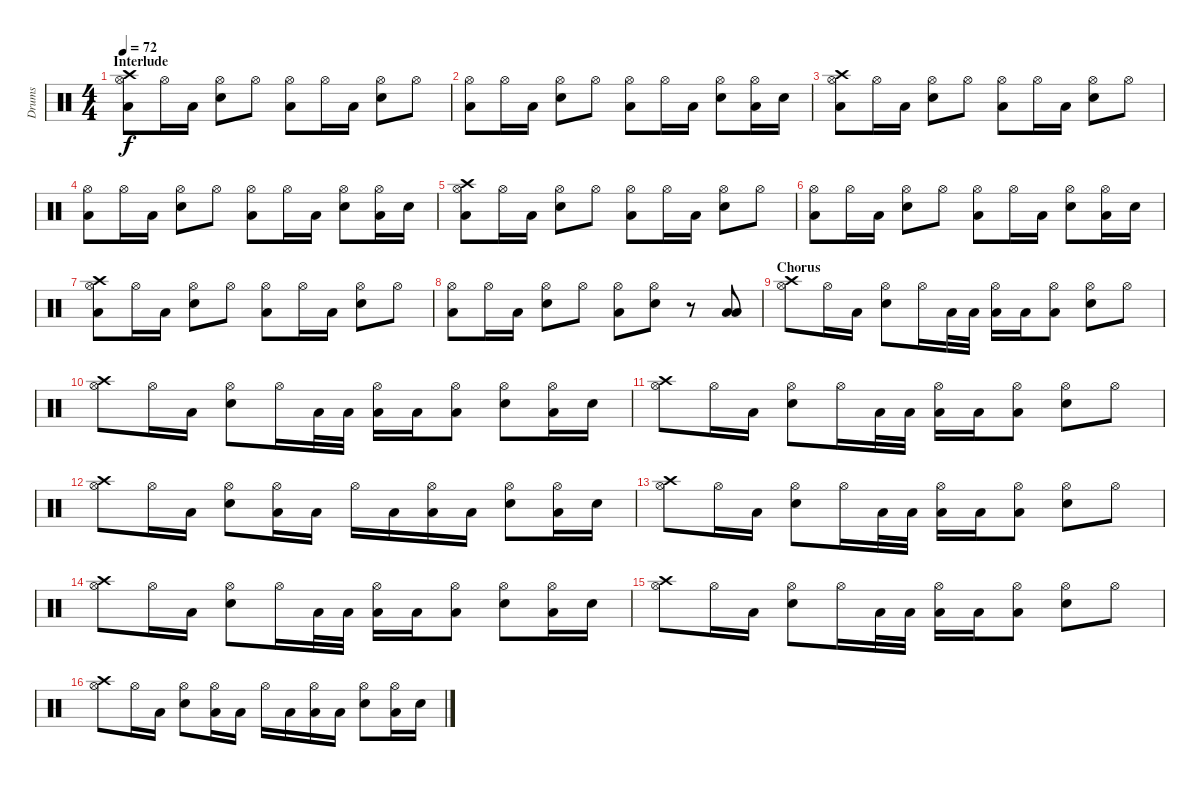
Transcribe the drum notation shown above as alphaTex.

\track ("Drums" "Drums") {instrument percussion}
\staff {score}
\articulation defaults
\ts (4 4)
\section ("" "Interlude")
\tempo 72
\clef neutral
\ks c
("Crash high (hit)" "Hi-Hat (open)" "Low Tom (hit)").8{dy f} "Hi-Hat (open)".16 "Low Tom (hit)".16 ("Hi-Hat (open)" "Electric Snare (hit)").8 "Hi-Hat (open)".8 ("Hi-Hat (open)" "Low Tom (hit)").8 "Hi-Hat (open)".16 "Low Tom (hit)".16 ("Hi-Hat (open)" "Electric Snare (hit)").8 "Hi-Hat (open)".8 |
("Hi-Hat (open)" "Low Tom (hit)").8 "Hi-Hat (open)".16 "Low Tom (hit)".16 ("Hi-Hat (open)" "Electric Snare (hit)").8 "Hi-Hat (open)".8 ("Hi-Hat (open)" "Low Tom (hit)").8 "Hi-Hat (open)".16 "Low Tom (hit)".16 ("Hi-Hat (open)" "Electric Snare (hit)").8 ("Hi-Hat (open)" "Low Tom (hit)").16 "Electric Snare (hit)".16 |
("Crash high (hit)" "Hi-Hat (open)" "Low Tom (hit)").8 "Hi-Hat (open)".16 "Low Tom (hit)".16 ("Hi-Hat (open)" "Electric Snare (hit)").8 "Hi-Hat (open)".8 ("Hi-Hat (open)" "Low Tom (hit)").8 "Hi-Hat (open)".16 "Low Tom (hit)".16 ("Hi-Hat (open)" "Electric Snare (hit)").8 "Hi-Hat (open)".8 |
("Hi-Hat (open)" "Low Tom (hit)").8 "Hi-Hat (open)".16 "Low Tom (hit)".16 ("Hi-Hat (open)" "Electric Snare (hit)").8 "Hi-Hat (open)".8 ("Hi-Hat (open)" "Low Tom (hit)").8 "Hi-Hat (open)".16 "Low Tom (hit)".16 ("Hi-Hat (open)" "Electric Snare (hit)").8 ("Hi-Hat (open)" "Low Tom (hit)").16 "Electric Snare (hit)".16 |
("Crash high (hit)" "Hi-Hat (open)" "Low Tom (hit)").8 "Hi-Hat (open)".16 "Low Tom (hit)".16 ("Hi-Hat (open)" "Electric Snare (hit)").8 "Hi-Hat (open)".8 ("Hi-Hat (open)" "Low Tom (hit)").8 "Hi-Hat (open)".16 "Low Tom (hit)".16 ("Hi-Hat (open)" "Electric Snare (hit)").8 "Hi-Hat (open)".8 |
("Hi-Hat (open)" "Low Tom (hit)").8 "Hi-Hat (open)".16 "Low Tom (hit)".16 ("Hi-Hat (open)" "Electric Snare (hit)").8 "Hi-Hat (open)".8 ("Hi-Hat (open)" "Low Tom (hit)").8 "Hi-Hat (open)".16 "Low Tom (hit)".16 ("Hi-Hat (open)" "Electric Snare (hit)").8 ("Hi-Hat (open)" "Low Tom (hit)").16 "Electric Snare (hit)".16 |
("Crash high (hit)" "Hi-Hat (open)" "Low Tom (hit)").8 "Hi-Hat (open)".16 "Low Tom (hit)".16 ("Hi-Hat (open)" "Electric Snare (hit)").8 "Hi-Hat (open)".8 ("Hi-Hat (open)" "Low Tom (hit)").8 "Hi-Hat (open)".16 "Low Tom (hit)".16 ("Hi-Hat (open)" "Electric Snare (hit)").8 "Hi-Hat (open)".8 |
("Hi-Hat (open)" "Low Tom (hit)").8 "Hi-Hat (open)".16 "Low Tom (hit)".16 ("Hi-Hat (open)" "Electric Snare (hit)").8 "Hi-Hat (open)".8 ("Hi-Hat (open)" "Low Tom (hit)").8 ("Hi-Hat (open)" "Electric Snare (hit)").8 r.8 ("Low Floor Tom (hit)" "Low Tom (hit)").8 |
\section ("" "Chorus")
("Crash high (hit)" "Hi-Hat (open)").8 "Hi-Hat (open)".16 "Low Tom (hit)".16 ("Hi-Hat (open)" "Electric Snare (hit)").8 "Hi-Hat (open)".16 "Low Tom (hit)".32 "Low Tom (hit)".32 ("Hi-Hat (open)" "Low Tom (hit)").16 "Low Tom (hit)".16 ("Hi-Hat (open)" "Low Tom (hit)").8 ("Hi-Hat (open)" "Electric Snare (hit)").8 "Hi-Hat (open)".8 |
("Crash high (hit)" "Hi-Hat (open)").8 "Hi-Hat (open)".16 "Low Tom (hit)".16 ("Hi-Hat (open)" "Electric Snare (hit)").8 "Hi-Hat (open)".16 "Low Tom (hit)".32 "Low Tom (hit)".32 ("Hi-Hat (open)" "Low Tom (hit)").16 "Low Tom (hit)".16 ("Hi-Hat (open)" "Low Tom (hit)").8 ("Hi-Hat (open)" "Electric Snare (hit)").8 ("Hi-Hat (open)" "Low Tom (hit)").16 "Electric Snare (hit)".16 |
("Crash high (hit)" "Hi-Hat (open)").8 "Hi-Hat (open)".16 "Low Tom (hit)".16 ("Hi-Hat (open)" "Electric Snare (hit)").8 "Hi-Hat (open)".16 "Low Tom (hit)".32 "Low Tom (hit)".32 ("Hi-Hat (open)" "Low Tom (hit)").16 "Low Tom (hit)".16 ("Hi-Hat (open)" "Low Tom (hit)").8 ("Hi-Hat (open)" "Electric Snare (hit)").8 "Hi-Hat (open)".8 |
("Crash high (hit)" "Hi-Hat (open)").8 "Hi-Hat (open)".16 "Low Tom (hit)".16 ("Hi-Hat (open)" "Electric Snare (hit)").8 ("Hi-Hat (open)" "Low Tom (hit)").16 "Low Tom (hit)".16 "Hi-Hat (open)".16 "Low Tom (hit)".16 ("Hi-Hat (open)" "Low Tom (hit)").16 "Low Tom (hit)".16 ("Hi-Hat (open)" "Electric Snare (hit)").8 ("Hi-Hat (open)" "Low Tom (hit)").16 "Electric Snare (hit)".16 |
("Crash high (hit)" "Hi-Hat (open)").8 "Hi-Hat (open)".16 "Low Tom (hit)".16 ("Hi-Hat (open)" "Electric Snare (hit)").8 "Hi-Hat (open)".16 "Low Tom (hit)".32 "Low Tom (hit)".32 ("Hi-Hat (open)" "Low Tom (hit)").16 "Low Tom (hit)".16 ("Hi-Hat (open)" "Low Tom (hit)").8 ("Hi-Hat (open)" "Electric Snare (hit)").8 "Hi-Hat (open)".8 |
("Crash high (hit)" "Hi-Hat (open)").8 "Hi-Hat (open)".16 "Low Tom (hit)".16 ("Hi-Hat (open)" "Electric Snare (hit)").8 "Hi-Hat (open)".16 "Low Tom (hit)".32 "Low Tom (hit)".32 ("Hi-Hat (open)" "Low Tom (hit)").16 "Low Tom (hit)".16 ("Hi-Hat (open)" "Low Tom (hit)").8 ("Hi-Hat (open)" "Electric Snare (hit)").8 ("Hi-Hat (open)" "Low Tom (hit)").16 "Electric Snare (hit)".16 |
("Crash high (hit)" "Hi-Hat (open)").8 "Hi-Hat (open)".16 "Low Tom (hit)".16 ("Hi-Hat (open)" "Electric Snare (hit)").8 "Hi-Hat (open)".16 "Low Tom (hit)".32 "Low Tom (hit)".32 ("Hi-Hat (open)" "Low Tom (hit)").16 "Low Tom (hit)".16 ("Hi-Hat (open)" "Low Tom (hit)").8 ("Hi-Hat (open)" "Electric Snare (hit)").8 "Hi-Hat (open)".8 |
("Crash high (hit)" "Hi-Hat (open)").8 "Hi-Hat (open)".16 "Low Tom (hit)".16 ("Hi-Hat (open)" "Electric Snare (hit)").8 ("Hi-Hat (open)" "Low Tom (hit)").16 "Low Tom (hit)".16 "Hi-Hat (open)".16 "Low Tom (hit)".16 ("Hi-Hat (open)" "Low Tom (hit)").16 "Low Tom (hit)".16 ("Hi-Hat (open)" "Electric Snare (hit)").8 ("Hi-Hat (open)" "Low Tom (hit)").16 "Electric Snare (hit)".16
